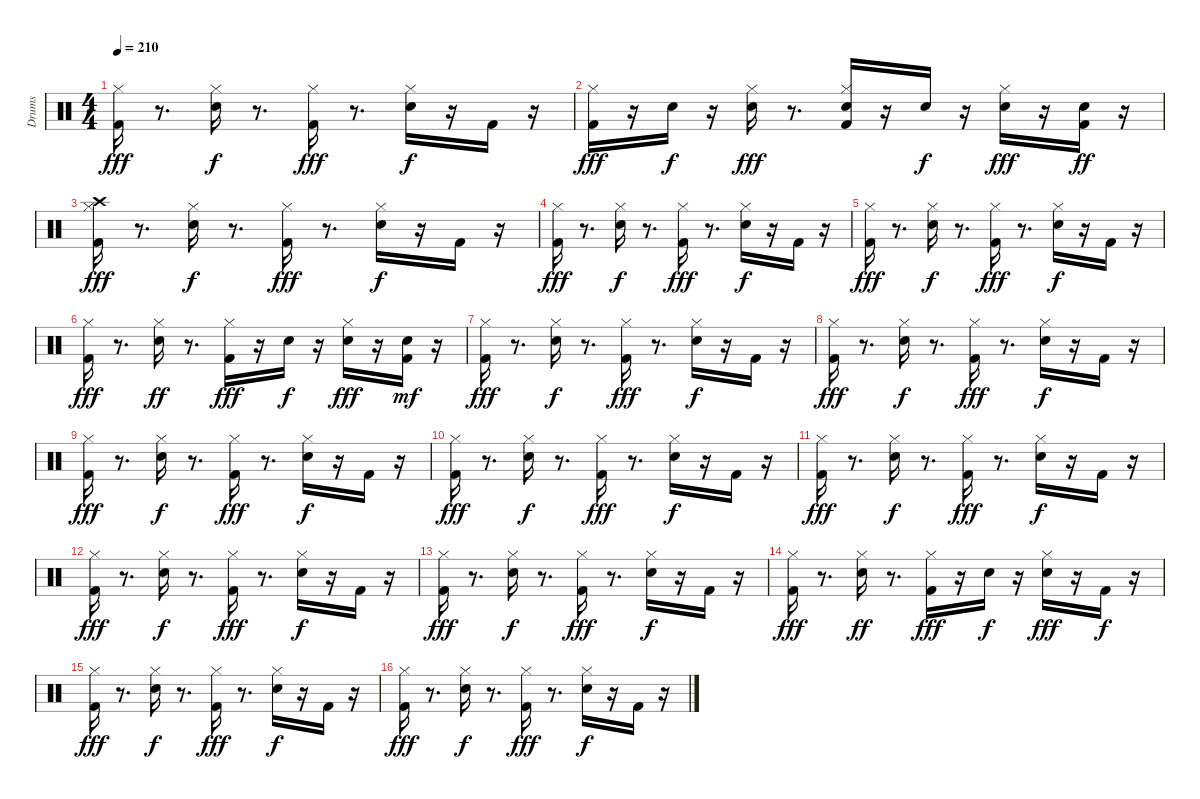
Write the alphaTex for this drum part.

\track ("Drums " "Drums ") {instrument percussion}
\staff {score}
\articulation defaults
\ts (4 4)
\tempo 210
\clef neutral
\ks c
("Kick (hit) 2" "Hi-Hat (closed)").16{dy fff} r.8{d} ("Snare (hit) 2" "Hi-Hat (closed)").16{dy f} r.8{d} ("Kick (hit) 2" "Hi-Hat (closed)").16{dy fff} r.8{d} ("Snare (hit) 2" "Hi-Hat (closed)").16{dy f} r.16 "Kick (hit) 2".16 r.16 |
("Kick (hit) 2" "Hi-Hat (closed)").16{dy fff} r.16 "Snare (hit) 2".16{dy f} r.16 ("Snare (hit) 2" "Hi-Hat (closed)").16{dy fff} r.8{d} ("Kick (hit) 2" "Snare (hit) 2" "Hi-Hat (closed)").16 r.16 "Snare (hit) 2".16{dy f} r.16 ("Snare (hit) 2" "Hi-Hat (closed)").16{dy fff} r.16 ("Kick (hit) 2" "Snare (hit) 2").16{dy ff} r.16 |
("Kick (hit) 2" "Hi-Hat (closed)" "Crash high (hit)").16{dy fff} r.8{d} ("Snare (hit) 2" "Hi-Hat (closed)").16{dy f} r.8{d} ("Kick (hit) 2" "Hi-Hat (closed)").16{dy fff} r.8{d} ("Snare (hit) 2" "Hi-Hat (closed)").16{dy f} r.16 "Kick (hit) 2".16 r.16 |
("Kick (hit) 2" "Hi-Hat (closed)").16{dy fff} r.8{d} ("Snare (hit) 2" "Hi-Hat (closed)").16{dy f} r.8{d} ("Kick (hit) 2" "Hi-Hat (closed)").16{dy fff} r.8{d} ("Snare (hit) 2" "Hi-Hat (closed)").16{dy f} r.16 "Kick (hit) 2".16 r.16 |
("Kick (hit) 2" "Hi-Hat (closed)").16{dy fff} r.8{d} ("Snare (hit) 2" "Hi-Hat (closed)").16{dy f} r.8{d} ("Kick (hit) 2" "Hi-Hat (closed)").16{dy fff} r.8{d} ("Snare (hit) 2" "Hi-Hat (closed)").16{dy f} r.16 "Kick (hit) 2".16 r.16 |
("Kick (hit) 2" "Hi-Hat (closed)").16{dy fff} r.8{d} ("Snare (hit) 2" "Hi-Hat (closed)").16{dy ff} r.8{d} ("Kick (hit) 2" "Hi-Hat (closed)").16{dy fff} r.16 "Snare (hit) 2".16{dy f} r.16 ("Snare (hit) 2" "Hi-Hat (closed)").16{dy fff} r.16 ("Kick (hit) 2" "Snare (hit) 2").16{dy mf} r.16 |
("Kick (hit) 2" "Hi-Hat (closed)").16{dy fff} r.8{d} ("Snare (hit) 2" "Hi-Hat (closed)").16{dy f} r.8{d} ("Kick (hit) 2" "Hi-Hat (closed)").16{dy fff} r.8{d} ("Snare (hit) 2" "Hi-Hat (closed)").16{dy f} r.16 "Kick (hit) 2".16 r.16 |
("Kick (hit) 2" "Hi-Hat (closed)").16{dy fff} r.8{d} ("Snare (hit) 2" "Hi-Hat (closed)").16{dy f} r.8{d} ("Kick (hit) 2" "Hi-Hat (closed)").16{dy fff} r.8{d} ("Snare (hit) 2" "Hi-Hat (closed)").16{dy f} r.16 "Kick (hit) 2".16 r.16 |
("Kick (hit) 2" "Hi-Hat (closed)").16{dy fff} r.8{d} ("Snare (hit) 2" "Hi-Hat (closed)").16{dy f} r.8{d} ("Kick (hit) 2" "Hi-Hat (closed)").16{dy fff} r.8{d} ("Snare (hit) 2" "Hi-Hat (closed)").16{dy f} r.16 "Kick (hit) 2".16 r.16 |
("Kick (hit) 2" "Hi-Hat (closed)").16{dy fff} r.8{d} ("Snare (hit) 2" "Hi-Hat (closed)").16{dy f} r.8{d} ("Kick (hit) 2" "Hi-Hat (closed)").16{dy fff} r.8{d} ("Snare (hit) 2" "Hi-Hat (closed)").16{dy f} r.16 "Kick (hit) 2".16 r.16 |
("Kick (hit) 2" "Hi-Hat (closed)").16{dy fff} r.8{d} ("Snare (hit) 2" "Hi-Hat (closed)").16{dy f} r.8{d} ("Kick (hit) 2" "Hi-Hat (closed)").16{dy fff} r.8{d} ("Snare (hit) 2" "Hi-Hat (closed)").16{dy f} r.16 "Kick (hit) 2".16 r.16 |
("Kick (hit) 2" "Hi-Hat (closed)").16{dy fff} r.8{d} ("Snare (hit) 2" "Hi-Hat (closed)").16{dy f} r.8{d} ("Kick (hit) 2" "Hi-Hat (closed)").16{dy fff} r.8{d} ("Snare (hit) 2" "Hi-Hat (closed)").16{dy f} r.16 "Kick (hit) 2".16 r.16 |
("Kick (hit) 2" "Hi-Hat (closed)").16{dy fff} r.8{d} ("Snare (hit) 2" "Hi-Hat (closed)").16{dy f} r.8{d} ("Kick (hit) 2" "Hi-Hat (closed)").16{dy fff} r.8{d} ("Snare (hit) 2" "Hi-Hat (closed)").16{dy f} r.16 "Kick (hit) 2".16 r.16 |
("Kick (hit) 2" "Hi-Hat (closed)").16{dy fff} r.8{d} ("Snare (hit) 2" "Hi-Hat (closed)").16{dy ff} r.8{d} ("Kick (hit) 2" "Hi-Hat (closed)").16{dy fff} r.16 "Snare (hit) 2".16{dy f} r.16 ("Snare (hit) 2" "Hi-Hat (closed)").16{dy fff} r.16 "Kick (hit) 2".16{dy f} r.16 |
("Kick (hit) 2" "Hi-Hat (closed)").16{dy fff} r.8{d} ("Snare (hit) 2" "Hi-Hat (closed)").16{dy f} r.8{d} ("Kick (hit) 2" "Hi-Hat (closed)").16{dy fff} r.8{d} ("Snare (hit) 2" "Hi-Hat (closed)").16{dy f} r.16 "Kick (hit) 2".16 r.16 |
("Kick (hit) 2" "Hi-Hat (closed)").16{dy fff} r.8{d} ("Snare (hit) 2" "Hi-Hat (closed)").16{dy f} r.8{d} ("Kick (hit) 2" "Hi-Hat (closed)").16{dy fff} r.8{d} ("Snare (hit) 2" "Hi-Hat (closed)").16{dy f} r.16 "Kick (hit) 2".16 r.16
